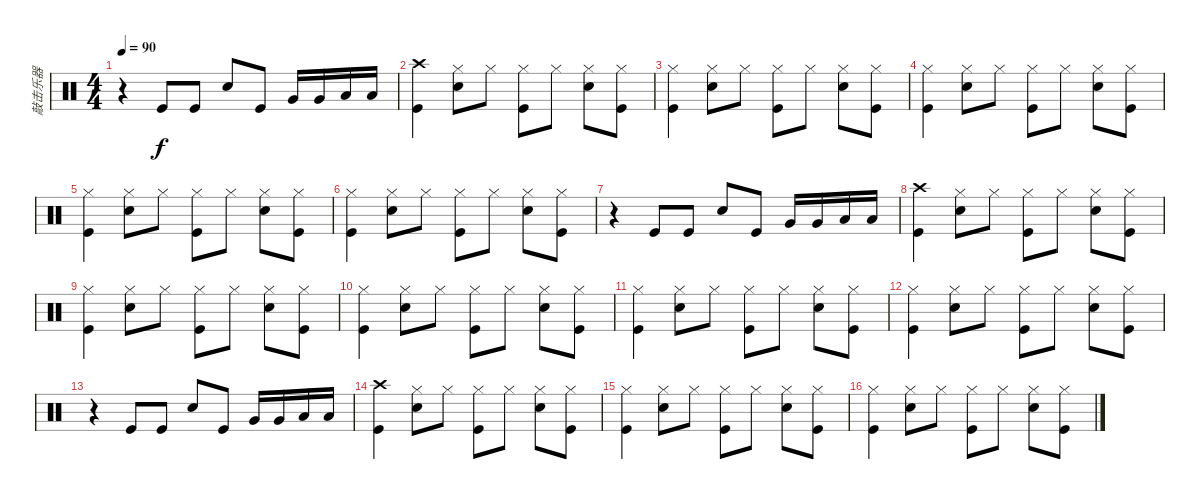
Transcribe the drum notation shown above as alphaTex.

\track ("敲击乐器" "敲击乐器") {instrument percussion}
\staff {score}
\articulation defaults
\ts (4 4)
\tempo 90
\clef neutral
\ks c
r.4{dy f} "Kick (hit)".8 "Kick (hit)".8 "Snare (hit) 2".8 "Kick (hit)".8 "Very Low Tom (hit)".16 "Very Low Tom (hit)".16 "Low Floor Tom (hit)".16 "Low Floor Tom (hit)".16 |
("Crash high (hit)" "Kick (hit)").4 ("Hi-Hat (closed)" "Snare (hit) 2").8 "Hi-Hat (closed)".8 ("Hi-Hat (closed)" "Kick (hit)").8 "Hi-Hat (closed)".8 ("Hi-Hat (closed)" "Snare (hit) 2").8 ("Hi-Hat (closed)" "Kick (hit)").8 |
("Hi-Hat (closed)" "Kick (hit)").4 ("Hi-Hat (closed)" "Snare (hit) 2").8 "Hi-Hat (closed)".8 ("Hi-Hat (closed)" "Kick (hit)").8 "Hi-Hat (closed)".8 ("Hi-Hat (closed)" "Snare (hit) 2").8 ("Hi-Hat (closed)" "Kick (hit)").8 |
("Hi-Hat (closed)" "Kick (hit)").4 ("Hi-Hat (closed)" "Snare (hit) 2").8 "Hi-Hat (closed)".8 ("Hi-Hat (closed)" "Kick (hit)").8 "Hi-Hat (closed)".8 ("Hi-Hat (closed)" "Snare (hit) 2").8 ("Hi-Hat (closed)" "Kick (hit)").8 |
("Hi-Hat (closed)" "Kick (hit)").4 ("Hi-Hat (closed)" "Snare (hit) 2").8 "Hi-Hat (closed)".8 ("Hi-Hat (closed)" "Kick (hit)").8 "Hi-Hat (closed)".8 ("Hi-Hat (closed)" "Snare (hit) 2").8 ("Hi-Hat (closed)" "Kick (hit)").8 |
("Hi-Hat (closed)" "Kick (hit)").4 ("Hi-Hat (closed)" "Snare (hit) 2").8 "Hi-Hat (closed)".8 ("Hi-Hat (closed)" "Kick (hit)").8 "Hi-Hat (closed)".8 ("Hi-Hat (closed)" "Snare (hit) 2").8 ("Hi-Hat (closed)" "Kick (hit)").8 |
r.4 "Kick (hit)".8 "Kick (hit)".8 "Snare (hit) 2".8 "Kick (hit)".8 "Very Low Tom (hit)".16 "Very Low Tom (hit)".16 "Low Floor Tom (hit)".16 "Low Floor Tom (hit)".16 |
("Crash high (hit)" "Kick (hit)").4 ("Hi-Hat (closed)" "Snare (hit) 2").8 "Hi-Hat (closed)".8 ("Hi-Hat (closed)" "Kick (hit)").8 "Hi-Hat (closed)".8 ("Hi-Hat (closed)" "Snare (hit) 2").8 ("Hi-Hat (closed)" "Kick (hit)").8 |
("Hi-Hat (closed)" "Kick (hit)").4 ("Hi-Hat (closed)" "Snare (hit) 2").8 "Hi-Hat (closed)".8 ("Hi-Hat (closed)" "Kick (hit)").8 "Hi-Hat (closed)".8 ("Hi-Hat (closed)" "Snare (hit) 2").8 ("Hi-Hat (closed)" "Kick (hit)").8 |
("Hi-Hat (closed)" "Kick (hit)").4 ("Hi-Hat (closed)" "Snare (hit) 2").8 "Hi-Hat (closed)".8 ("Hi-Hat (closed)" "Kick (hit)").8 "Hi-Hat (closed)".8 ("Hi-Hat (closed)" "Snare (hit) 2").8 ("Hi-Hat (closed)" "Kick (hit)").8 |
("Hi-Hat (closed)" "Kick (hit)").4 ("Hi-Hat (closed)" "Snare (hit) 2").8 "Hi-Hat (closed)".8 ("Hi-Hat (closed)" "Kick (hit)").8 "Hi-Hat (closed)".8 ("Hi-Hat (closed)" "Snare (hit) 2").8 ("Hi-Hat (closed)" "Kick (hit)").8 |
("Hi-Hat (closed)" "Kick (hit)").4 ("Hi-Hat (closed)" "Snare (hit) 2").8 "Hi-Hat (closed)".8 ("Hi-Hat (closed)" "Kick (hit)").8 "Hi-Hat (closed)".8 ("Hi-Hat (closed)" "Snare (hit) 2").8 ("Hi-Hat (closed)" "Kick (hit)").8 |
r.4 "Kick (hit)".8 "Kick (hit)".8 "Snare (hit) 2".8 "Kick (hit)".8 "Very Low Tom (hit)".16 "Very Low Tom (hit)".16 "Low Floor Tom (hit)".16 "Low Floor Tom (hit)".16 |
("Crash high (hit)" "Kick (hit)").4 ("Hi-Hat (closed)" "Snare (hit) 2").8 "Hi-Hat (closed)".8 ("Hi-Hat (closed)" "Kick (hit)").8 "Hi-Hat (closed)".8 ("Hi-Hat (closed)" "Snare (hit) 2").8 ("Hi-Hat (closed)" "Kick (hit)").8 |
("Hi-Hat (closed)" "Kick (hit)").4 ("Hi-Hat (closed)" "Snare (hit) 2").8 "Hi-Hat (closed)".8 ("Hi-Hat (closed)" "Kick (hit)").8 "Hi-Hat (closed)".8 ("Hi-Hat (closed)" "Snare (hit) 2").8 ("Hi-Hat (closed)" "Kick (hit)").8 |
("Hi-Hat (closed)" "Kick (hit)").4 ("Hi-Hat (closed)" "Snare (hit) 2").8 "Hi-Hat (closed)".8 ("Hi-Hat (closed)" "Kick (hit)").8 "Hi-Hat (closed)".8 ("Hi-Hat (closed)" "Snare (hit) 2").8 ("Hi-Hat (closed)" "Kick (hit)").8
